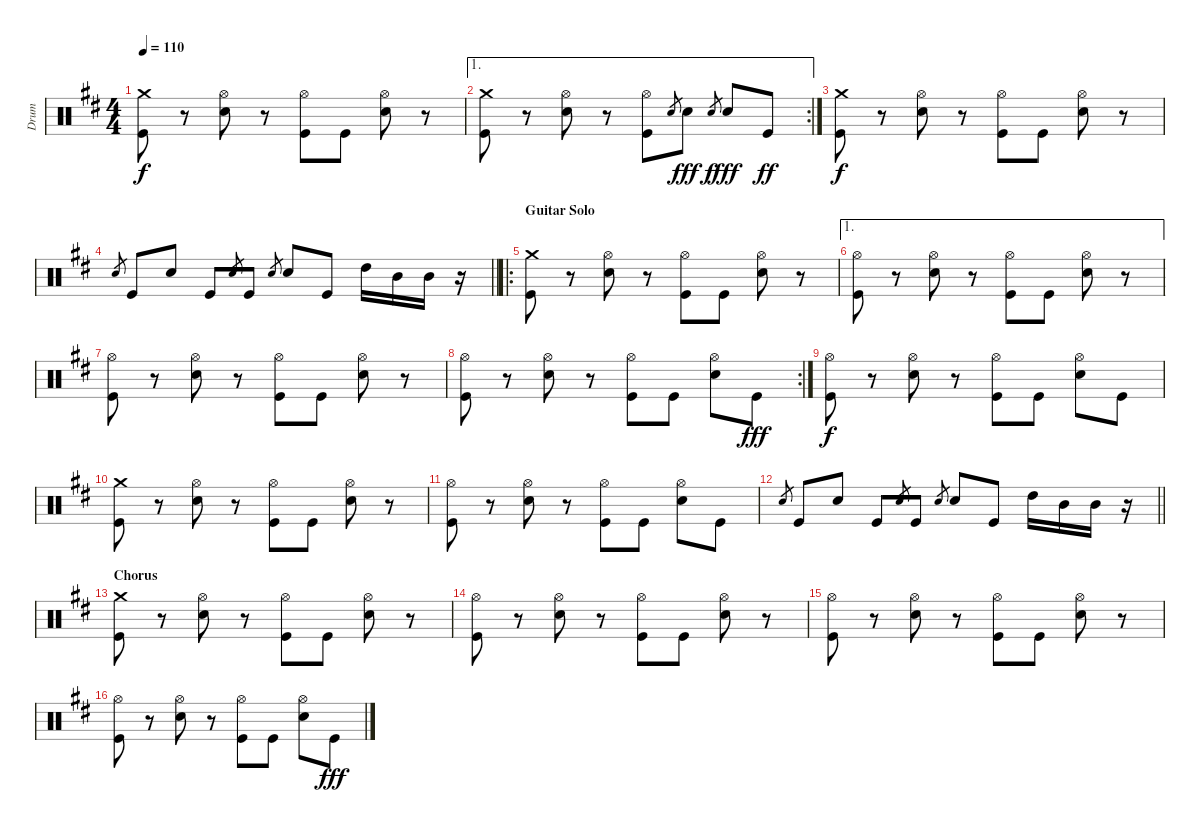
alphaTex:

\track ("Drum" "Drum") {instrument percussion}
\staff {score}
\articulation defaults
\ts (4 4)
\tempo 110
\clef neutral
\ks d
("Crash medium (hit)" "Kick (hit)").8{dy f} r.8 ("Hi-Hat (open)" "Electric Snare (hit)").8 r.8 ("Hi-Hat (open)" "Kick (hit)").8 "Kick (hit)".8 ("Hi-Hat (open)" "Electric Snare (hit)").8 r.8 |
\ae 1
\rc 2
("Crash medium (hit)" "Kick (hit)").8 r.8 ("Hi-Hat (open)" "Electric Snare (hit)").8 r.8 ("Hi-Hat (open)" "Kick (hit)").8 "Electric Snare (hit)".8{gr} "Electric Snare (hit)".8{dy fff} "Electric Snare (hit)".8{gr dy f} "Electric Snare (hit)".8{dy fff} "Kick (hit)".8{dy ff} |
("Crash medium (hit)" "Kick (hit)").8{dy f} r.8 ("Hi-Hat (open)" "Electric Snare (hit)").8 r.8 ("Hi-Hat (open)" "Kick (hit)").8 "Kick (hit)".8 ("Hi-Hat (open)" "Electric Snare (hit)").8 r.8 |
\barLineRight lightlight "Electric Snare (hit)".8{gr} "Kick (hit)".8 "Electric Snare (hit)".8 "Kick (hit)".8 "Electric Snare (hit)".8{gr} "Kick (hit)".8 "Electric Snare (hit)".8{gr} "Electric Snare (hit)".8 "Kick (hit)".8 "High Tom (hit)".16 "Mid Tom (hit)".16 "Mid Tom (hit)".16
r.16 |
\ro
\section ("" "Guitar Solo")
("Crash medium (hit)" "Kick (hit)").8 r.8 ("Hi-Hat (open)" "Electric Snare (hit)").8 r.8 ("Hi-Hat (open)" "Kick (hit)").8 "Kick (hit)".8 ("Hi-Hat (open)" "Electric Snare (hit)").8 r.8 |
\ae 1
("Hi-Hat (open)" "Kick (hit)").8 r.8 ("Hi-Hat (open)" "Electric Snare (hit)").8 r.8 ("Hi-Hat (open)" "Kick (hit)").8 "Kick (hit)".8 ("Hi-Hat (open)" "Electric Snare (hit)").8 r.8 |
("Hi-Hat (open)" "Kick (hit)").8 r.8 ("Hi-Hat (open)" "Electric Snare (hit)").8 r.8 ("Hi-Hat (open)" "Kick (hit)").8 "Kick (hit)".8 ("Hi-Hat (open)" "Electric Snare (hit)").8 r.8 |
\rc 2
("Hi-Hat (open)" "Kick (hit)").8 r.8 ("Hi-Hat (open)" "Electric Snare (hit)").8 r.8 ("Hi-Hat (open)" "Kick (hit)").8 "Kick (hit)".8 ("Hi-Hat (open)" "Electric Snare (hit)").8 "Kick (hit)".8{dy fff} |
("Hi-Hat (open)" "Kick (hit)").8{dy f} r.8 ("Hi-Hat (open)" "Electric Snare (hit)").8 r.8 ("Hi-Hat (open)" "Kick (hit)").8 "Kick (hit)".8 ("Hi-Hat (open)" "Electric Snare (hit)").8 "Kick (hit)".8 |
("Crash medium (hit)" "Kick (hit)").8 r.8 ("Hi-Hat (open)" "Electric Snare (hit)").8 r.8 ("Hi-Hat (open)" "Kick (hit)").8 "Kick (hit)".8 ("Hi-Hat (open)" "Electric Snare (hit)").8 r.8 |
("Hi-Hat (open)" "Kick (hit)").8 r.8 ("Hi-Hat (open)" "Electric Snare (hit)").8 r.8 ("Hi-Hat (open)" "Kick (hit)").8 "Kick (hit)".8 ("Hi-Hat (open)" "Electric Snare (hit)").8 "Kick (hit)".8 |
\barLineRight lightlight "Electric Snare (hit)".8{gr} "Kick (hit)".8 "Electric Snare (hit)".8 "Kick (hit)".8 "Electric Snare (hit)".8{gr} "Kick (hit)".8 "Electric Snare (hit)".8{gr} "Electric Snare (hit)".8 "Kick (hit)".8 "High Tom (hit)".16 "Mid Tom (hit)".16 "Mid Tom (hit)".16
r.16 |
\section ("" "Chorus")
("Crash medium (hit)" "Kick (hit)").8 r.8 ("Hi-Hat (open)" "Electric Snare (hit)").8 r.8 ("Hi-Hat (open)" "Kick (hit)").8 "Kick (hit)".8 ("Hi-Hat (open)" "Electric Snare (hit)").8 r.8 |
("Hi-Hat (open)" "Kick (hit)").8 r.8 ("Hi-Hat (open)" "Electric Snare (hit)").8 r.8 ("Hi-Hat (open)" "Kick (hit)").8 "Kick (hit)".8 ("Hi-Hat (open)" "Electric Snare (hit)").8 r.8 |
("Hi-Hat (open)" "Kick (hit)").8 r.8 ("Hi-Hat (open)" "Electric Snare (hit)").8 r.8 ("Hi-Hat (open)" "Kick (hit)").8 "Kick (hit)".8 ("Hi-Hat (open)" "Electric Snare (hit)").8 r.8 |
("Hi-Hat (open)" "Kick (hit)").8 r.8 ("Hi-Hat (open)" "Electric Snare (hit)").8 r.8 ("Hi-Hat (open)" "Kick (hit)").8 "Kick (hit)".8 ("Hi-Hat (open)" "Electric Snare (hit)").8 "Kick (hit)".8{dy fff}
